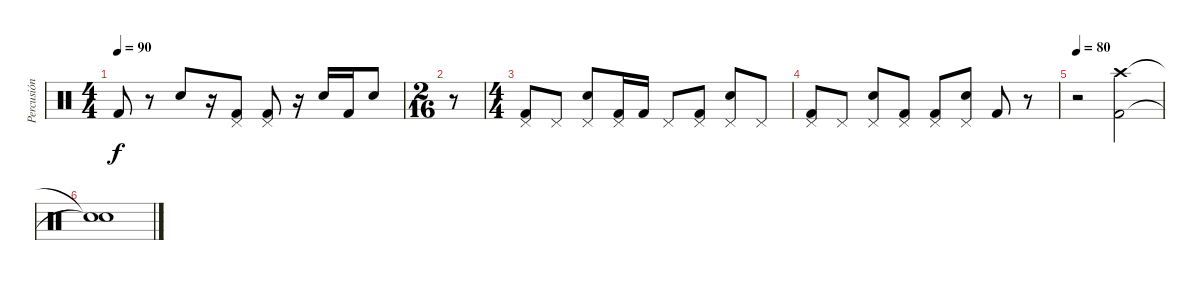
\track ("Percusión" "Percusión") {instrument percussion}
\staff {score}
\articulation defaults
\ts (4 4)
\tempo 90
\clef neutral
\ks c "Kick (hit) 2".8{dy f}
r.8 "Electric Snare (hit)".8 r.16 ("Pedal Hi-Hat (hit)" "Kick (hit) 2").8 ("Pedal Hi-Hat (hit)" "Kick (hit) 2").8 r.16 "Electric Snare (hit)".16 "Kick (hit) 2".16 "Electric Snare (hit)".8 |
\ts (2 16)
r.8 |
\ts (4 4)
("Pedal Hi-Hat (hit)" "Kick (hit) 2").8 "Pedal Hi-Hat (hit)".8 ("Pedal Hi-Hat (hit)" "Electric Snare (hit)").8 ("Pedal Hi-Hat (hit)" "Kick (hit) 2").16 "Kick (hit) 2".16 "Pedal Hi-Hat (hit)".8 ("Pedal Hi-Hat (hit)" "Kick (hit) 2").8 ("Pedal Hi-Hat (hit)" "Electric Snare (hit)").8 "Pedal Hi-Hat (hit)".8 |
("Pedal Hi-Hat (hit)" "Kick (hit) 2").8 "Pedal Hi-Hat (hit)".8 ("Pedal Hi-Hat (hit)" "Electric Snare (hit)").8 ("Pedal Hi-Hat (hit)" "Kick (hit) 2").8 ("Pedal Hi-Hat (hit)" "Kick (hit) 2").8 ("Pedal Hi-Hat (hit)" "Electric Snare (hit)").8 "Kick (hit) 2".8 r.8 |
\tempo 80
r.2 ("Crash high (hit)" "Kick (hit) 2").2 |
("Snare (hit)"{t} "Snare (hit)"{t}).1
